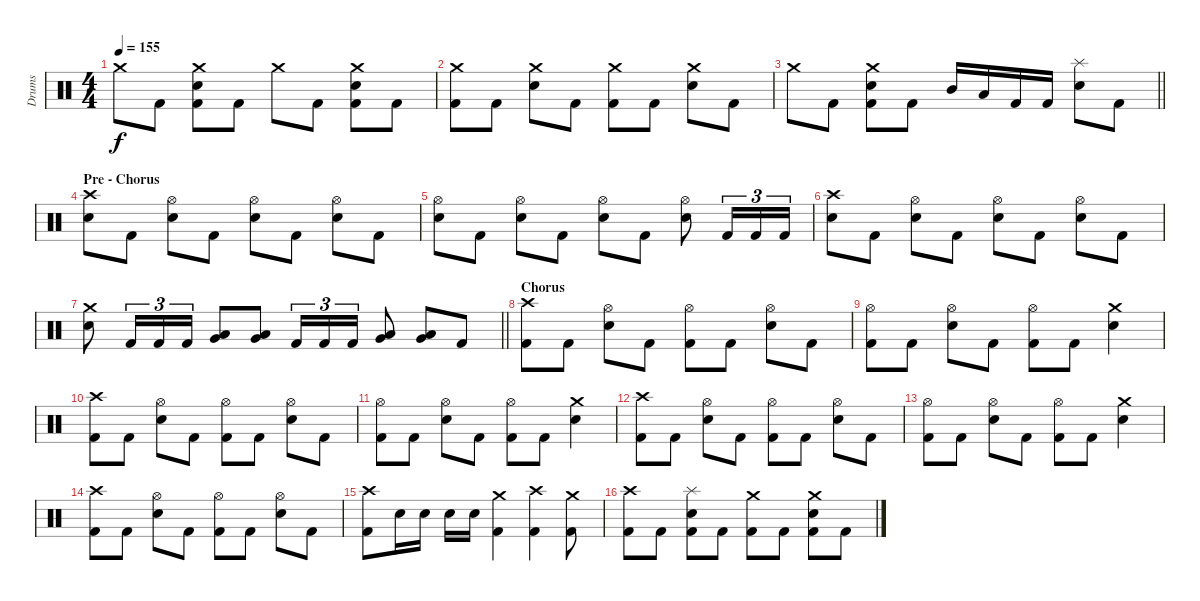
\track ("Drums" "Drums") {instrument percussion}
\staff {score}
\articulation defaults
\ts (4 4)
\tempo 155
\clef neutral
\ks c "Crash medium (hit)".8{dy f} "Kick (hit) 2".8
("Crash medium (hit)" "Electric Snare (hit)" "Kick (hit) 2").8 "Kick (hit) 2".8 "Crash medium (hit)".8 "Kick (hit) 2".8 ("Crash medium (hit)" "Electric Snare (hit)" "Kick (hit) 2").8 "Kick (hit) 2".8 |
("Crash medium (hit)" "Kick (hit) 2").8 "Kick (hit) 2".8 ("Crash medium (hit)" "Electric Snare (hit)").8 "Kick (hit) 2".8 ("Crash medium (hit)" "Kick (hit) 2").8 "Kick (hit) 2".8 ("Crash medium (hit)" "Electric Snare (hit)").8 "Kick (hit) 2".8 |
\barLineRight lightlight "Crash medium (hit)".8 "Kick (hit) 2".8
("Crash medium (hit)" "Electric Snare (hit)" "Kick (hit) 2").8 "Kick (hit) 2".8 "Mid Tom (hit)".16 "Low Tom (hit)".16 "Kick (hit) 2".16 "Kick (hit) 2".16 ("Splash (hit)" "Electric Snare (hit)").8 "Kick (hit) 2".8 |
\section ("" "Pre - Chorus")
("Crash high (hit)" "Electric Snare (hit)").8 "Kick (hit) 2".8 ("Hi-Hat (open)" "Electric Snare (hit)").8 "Kick (hit) 2".8 ("Hi-Hat (open)" "Electric Snare (hit)").8 "Kick (hit) 2".8 ("Hi-Hat (open)" "Electric Snare (hit)").8 "Kick (hit) 2".8 |
("Hi-Hat (open)" "Electric Snare (hit)").8 "Kick (hit) 2".8 ("Hi-Hat (open)" "Electric Snare (hit)").8 "Kick (hit) 2".8 ("Hi-Hat (open)" "Electric Snare (hit)").8 "Kick (hit) 2".8 ("Hi-Hat (open)" "Electric Snare (hit)").8 "Kick (hit) 2".16{tu (3 2)} "Kick (hit) 2".16{tu (3 2)} "Kick (hit) 2".16{tu (3 2)} |
("Crash high (hit)" "Electric Snare (hit)").8 "Kick (hit) 2".8 ("Hi-Hat (open)" "Electric Snare (hit)").8 "Kick (hit) 2".8 ("Hi-Hat (open)" "Electric Snare (hit)").8 "Kick (hit) 2".8 ("Hi-Hat (open)" "Electric Snare (hit)").8 "Kick (hit) 2".8 |
\barLineRight lightlight
("Crash medium (hit)" "Electric Snare (hit)").8 "Kick (hit) 2".16{tu (3 2)} "Kick (hit) 2".16{tu (3 2)} "Kick (hit) 2".16{tu (3 2)} ("Low Tom (hit)" "Very Low Tom (hit)").8 ("Low Tom (hit)" "Very Low Tom (hit)").8 "Kick (hit) 2".16{tu (3 2)} "Kick (hit) 2".16{tu (3 2)} "Kick (hit) 2".16{tu (3 2)} ("Very Low Tom (hit)" "Low Floor Tom (hit)").8 ("Very Low Tom (hit)" "Low Floor Tom (hit)").8 "Kick (hit) 2".8 |
\section ("" "Chorus")
("Crash high (hit)" "Kick (hit) 2").8 "Kick (hit) 2".8 ("Hi-Hat (open)" "Electric Snare (hit)").8 "Kick (hit) 2".8 ("Hi-Hat (open)" "Kick (hit) 2").8 "Kick (hit) 2".8 ("Hi-Hat (open)" "Electric Snare (hit)").8 "Kick (hit) 2".8 |
("Hi-Hat (open)" "Kick (hit) 2").8 "Kick (hit) 2".8 ("Hi-Hat (open)" "Electric Snare (hit)").8 "Kick (hit) 2".8 ("Hi-Hat (open)" "Kick (hit) 2").8 "Kick (hit) 2".8 ("Crash medium (hit)" "Electric Snare (hit)").4 |
("Crash high (hit)" "Kick (hit) 2").8 "Kick (hit) 2".8 ("Hi-Hat (open)" "Electric Snare (hit)").8 "Kick (hit) 2".8 ("Hi-Hat (open)" "Kick (hit) 2").8 "Kick (hit) 2".8 ("Hi-Hat (open)" "Electric Snare (hit)").8 "Kick (hit) 2".8 |
("Hi-Hat (open)" "Kick (hit) 2").8 "Kick (hit) 2".8 ("Hi-Hat (open)" "Electric Snare (hit)").8 "Kick (hit) 2".8 ("Hi-Hat (open)" "Kick (hit) 2").8 "Kick (hit) 2".8 ("Crash medium (hit)" "Electric Snare (hit)").4 |
("Crash high (hit)" "Kick (hit) 2").8 "Kick (hit) 2".8 ("Hi-Hat (open)" "Electric Snare (hit)").8 "Kick (hit) 2".8 ("Hi-Hat (open)" "Kick (hit) 2").8 "Kick (hit) 2".8 ("Hi-Hat (open)" "Electric Snare (hit)").8 "Kick (hit) 2".8 |
("Hi-Hat (open)" "Kick (hit) 2").8 "Kick (hit) 2".8 ("Hi-Hat (open)" "Electric Snare (hit)").8 "Kick (hit) 2".8 ("Hi-Hat (open)" "Kick (hit) 2").8 "Kick (hit) 2".8 ("Crash medium (hit)" "Electric Snare (hit)").4 |
("Crash high (hit)" "Kick (hit) 2").8 "Kick (hit) 2".8 ("Hi-Hat (open)" "Electric Snare (hit)").8 "Kick (hit) 2".8 ("Hi-Hat (open)" "Kick (hit) 2").8 "Kick (hit) 2".8 ("Hi-Hat (open)" "Electric Snare (hit)").8 "Kick (hit) 2".8 |
("Crash high (hit)" "Kick (hit) 2").8 "Electric Snare (hit)".16 "Electric Snare (hit)".16 "Electric Snare (hit)".16 "Electric Snare (hit)".16 ("Crash medium (hit)" "Kick (hit) 2").4 ("Crash high (hit)" "Kick (hit) 2").4 ("Crash medium (hit)" "Kick (hit) 2").8 |
("Crash high (hit)" "Kick (hit) 2").8 "Kick (hit) 2".8 ("Splash (hit)" "Electric Snare (hit)" "Kick (hit) 2").8 "Kick (hit) 2".8 ("Crash medium (hit)" "Kick (hit) 2").8 "Kick (hit) 2".8 ("Crash medium (hit)" "Electric Snare (hit)" "Kick (hit) 2").8 "Kick (hit) 2".8
